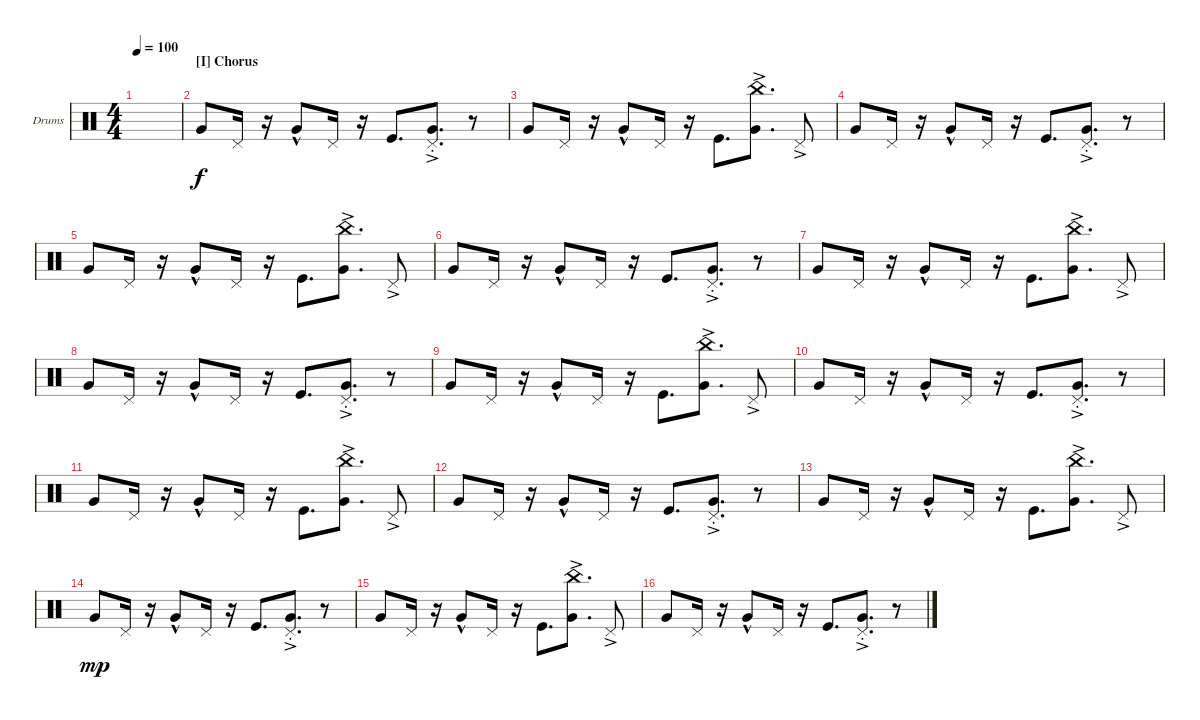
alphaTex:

\defaultSystemsLayout 4
\bracketExtendMode groupsimilarinstruments
\firstSystemTrackNameOrientation horizontal
\otherSystemsTrackNameOrientation horizontal
\track ("Drumkit" "Drums") {instrument percussion}
\staff {score}
\articulation defaults
\ts (4 4)
\tempo 100
\clef neutral
\ks c
|
\section ("I" "Chorus")
"Very Low Tom (hit)".8 "Pedal Hi-Hat (hit)".16 r.16 "Very Low Tom (hit)"{hac}.8 "Pedal Hi-Hat (hit)".16 r.16 "Kick (hit)".8{d} ("Very Low Tom (hit)"{ac st} "Pedal Hi-Hat (hit)"{ac st}).8{d} r.8 |
"Very Low Tom (hit)".8 "Pedal Hi-Hat (hit)".16 r.16 "Very Low Tom (hit)"{hac}.8 "Pedal Hi-Hat (hit)".16 r.16 "Kick (hit)".8{d} ("China (hit)"{ac} "Very Low Tom (hit)"{ac}).8{d} "Pedal Hi-Hat (hit)"{ac}.8 |
"Very Low Tom (hit)".8 "Pedal Hi-Hat (hit)".16 r.16 "Very Low Tom (hit)"{hac}.8 "Pedal Hi-Hat (hit)".16 r.16 "Kick (hit)".8{d} ("Very Low Tom (hit)"{ac st} "Pedal Hi-Hat (hit)"{ac st}).8{d} r.8 |
"Very Low Tom (hit)".8 "Pedal Hi-Hat (hit)".16 r.16 "Very Low Tom (hit)"{hac}.8 "Pedal Hi-Hat (hit)".16 r.16 "Kick (hit)".8{d} ("China (hit)"{ac} "Very Low Tom (hit)"{ac}).8{d} "Pedal Hi-Hat (hit)"{ac}.8 |
"Very Low Tom (hit)".8 "Pedal Hi-Hat (hit)".16 r.16 "Very Low Tom (hit)"{hac}.8 "Pedal Hi-Hat (hit)".16 r.16 "Kick (hit)".8{d} ("Very Low Tom (hit)"{ac st} "Pedal Hi-Hat (hit)"{ac st}).8{d} r.8 |
"Very Low Tom (hit)".8 "Pedal Hi-Hat (hit)".16 r.16 "Very Low Tom (hit)"{hac}.8 "Pedal Hi-Hat (hit)".16 r.16 "Kick (hit)".8{d} ("China (hit)"{ac} "Very Low Tom (hit)"{ac}).8{d} "Pedal Hi-Hat (hit)"{ac}.8 |
"Very Low Tom (hit)".8 "Pedal Hi-Hat (hit)".16 r.16 "Very Low Tom (hit)"{hac}.8 "Pedal Hi-Hat (hit)".16 r.16 "Kick (hit)".8{d} ("Very Low Tom (hit)"{ac st} "Pedal Hi-Hat (hit)"{ac st}).8{d} r.8 |
"Very Low Tom (hit)".8 "Pedal Hi-Hat (hit)".16 r.16 "Very Low Tom (hit)"{hac}.8 "Pedal Hi-Hat (hit)".16 r.16 "Kick (hit)".8{d} ("China (hit)"{ac} "Very Low Tom (hit)"{ac}).8{d} "Pedal Hi-Hat (hit)"{ac}.8 |
"Very Low Tom (hit)".8 "Pedal Hi-Hat (hit)".16 r.16 "Very Low Tom (hit)"{hac}.8 "Pedal Hi-Hat (hit)".16 r.16 "Kick (hit)".8{d} ("Very Low Tom (hit)"{ac st} "Pedal Hi-Hat (hit)"{ac st}).8{d} r.8 |
"Very Low Tom (hit)".8 "Pedal Hi-Hat (hit)".16 r.16 "Very Low Tom (hit)"{hac}.8 "Pedal Hi-Hat (hit)".16 r.16 "Kick (hit)".8{d} ("China (hit)"{ac} "Very Low Tom (hit)"{ac}).8{d} "Pedal Hi-Hat (hit)"{ac}.8 |
"Very Low Tom (hit)".8 "Pedal Hi-Hat (hit)".16 r.16 "Very Low Tom (hit)"{hac}.8 "Pedal Hi-Hat (hit)".16 r.16 "Kick (hit)".8{d} ("Very Low Tom (hit)"{ac st} "Pedal Hi-Hat (hit)"{ac st}).8{d} r.8 |
"Very Low Tom (hit)".8 "Pedal Hi-Hat (hit)".16 r.16 "Very Low Tom (hit)"{hac}.8 "Pedal Hi-Hat (hit)".16 r.16 "Kick (hit)".8{d} ("China (hit)"{ac} "Very Low Tom (hit)"{ac}).8{d} "Pedal Hi-Hat (hit)"{ac}.8 |
"Very Low Tom (hit)".8{dy mp} "Pedal Hi-Hat (hit)".16 r.16 "Very Low Tom (hit)"{hac}.8 "Pedal Hi-Hat (hit)".16 r.16 "Kick (hit)".8{d} ("Very Low Tom (hit)"{ac st} "Pedal Hi-Hat (hit)"{ac st}).8{d} r.8 |
"Very Low Tom (hit)".8 "Pedal Hi-Hat (hit)".16 r.16 "Very Low Tom (hit)"{hac}.8 "Pedal Hi-Hat (hit)".16 r.16 "Kick (hit)".8{d} ("China (hit)"{ac} "Very Low Tom (hit)"{ac}).8{d} "Pedal Hi-Hat (hit)"{ac}.8 |
"Very Low Tom (hit)".8 "Pedal Hi-Hat (hit)".16 r.16 "Very Low Tom (hit)"{hac}.8 "Pedal Hi-Hat (hit)".16 r.16 "Kick (hit)".8{d} ("Very Low Tom (hit)"{ac st} "Pedal Hi-Hat (hit)"{ac st}).8{d} r.8
